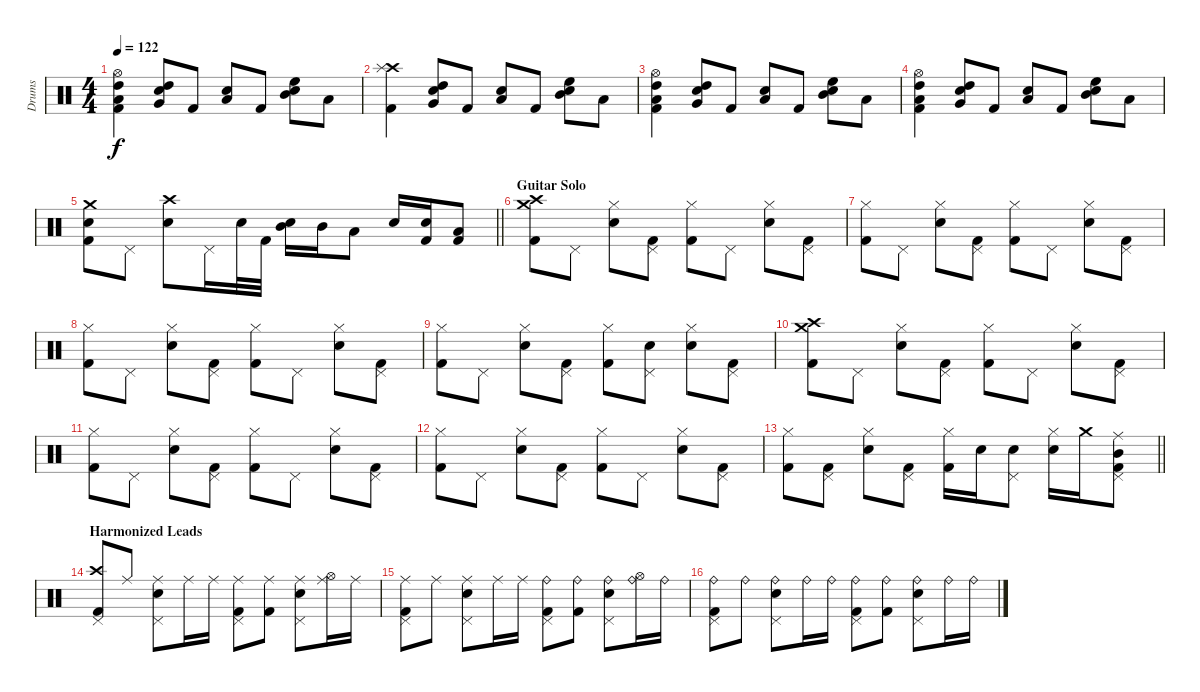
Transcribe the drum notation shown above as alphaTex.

\track ("Drums" "Drums") {instrument percussion}
\staff {score}
\articulation defaults
\ts (4 4)
\tempo 122
\clef neutral
\ks c
("Hi-Hat (open)" "High Tom (hit)" "Low Tom (hit)" "Kick (hit) 2").4{dy f} ("Snare (hit) 2" "Very Low Tom (hit)" "High Tom (hit)").8 "Kick (hit) 2".8 ("Snare (hit) 2" "Low Tom (hit)").8 "Kick (hit) 2".8 ("Snare (hit) 2" "Mid Tom (hit)" "High Floor Tom (hit)").8 "Low Floor Tom (hit)".8 |
("Crash high (hit)" "Splash (hit)" "Kick (hit) 2").4 ("Snare (hit) 2" "Very Low Tom (hit)" "High Tom (hit)").8 "Kick (hit) 2".8 ("Snare (hit) 2" "Low Tom (hit)").8 "Kick (hit) 2".8 ("Snare (hit) 2" "Mid Tom (hit)" "High Floor Tom (hit)").8 "Low Floor Tom (hit)".8 |
("Hi-Hat (open)" "High Tom (hit)" "Low Tom (hit)" "Kick (hit) 2").4 ("Snare (hit) 2" "Very Low Tom (hit)" "High Tom (hit)").8 "Kick (hit) 2".8 ("Snare (hit) 2" "Low Tom (hit)").8 "Kick (hit) 2".8 ("Snare (hit) 2" "Mid Tom (hit)" "High Floor Tom (hit)").8 "Low Floor Tom (hit)".8 |
("Hi-Hat (open)" "High Tom (hit)" "Low Tom (hit)" "Kick (hit) 2").4 ("Snare (hit) 2" "Very Low Tom (hit)" "High Tom (hit)").8 "Kick (hit) 2".8 ("Snare (hit) 2" "Low Tom (hit)").8 "Kick (hit) 2".8 ("Snare (hit) 2" "Mid Tom (hit)" "High Floor Tom (hit)").8 "Low Floor Tom (hit)".8 |
\barLineRight lightlight
("Crash medium (hit)" "Snare (hit) 2" "Kick (hit) 2").8 "Pedal Hi-Hat (hit)".8 ("Crash high (hit)" "Snare (hit) 2").8 "Pedal Hi-Hat (hit)".16 "Snare (hit) 2".32 "Kick (hit) 2".32 ("Snare (hit) 2" "Mid Tom (hit)").16 "Mid Tom (hit)".16 "Low Tom (hit)".8 "Snare (hit) 2".16 ("Snare (hit) 2" "Kick (hit) 2").16 ("Low Floor Tom (hit)" "Kick (hit) 2").8 |
\section ("" "Guitar Solo")
("Crash medium (hit)" "Crash high (hit)" "Kick (hit) 2").8 "Pedal Hi-Hat (hit)".8 ("Snare (hit) 2" "Hi-Hat (closed)").8 ("Pedal Hi-Hat (hit)" "Kick (hit) 2").8 ("Hi-Hat (closed)" "Kick (hit) 2").8 "Pedal Hi-Hat (hit)".8 ("Snare (hit) 2" "Hi-Hat (closed)").8 ("Pedal Hi-Hat (hit)" "Kick (hit) 2").8 |
("Hi-Hat (closed)" "Kick (hit) 2").8 "Pedal Hi-Hat (hit)".8 ("Snare (hit) 2" "Hi-Hat (closed)").8 ("Pedal Hi-Hat (hit)" "Kick (hit) 2").8 ("Hi-Hat (closed)" "Kick (hit) 2").8 "Pedal Hi-Hat (hit)".8 ("Snare (hit) 2" "Hi-Hat (closed)").8 ("Pedal Hi-Hat (hit)" "Kick (hit) 2").8 |
("Hi-Hat (closed)" "Kick (hit) 2").8 "Pedal Hi-Hat (hit)".8 ("Snare (hit) 2" "Hi-Hat (closed)").8 ("Pedal Hi-Hat (hit)" "Kick (hit) 2").8 ("Hi-Hat (closed)" "Kick (hit) 2").8 "Pedal Hi-Hat (hit)".8 ("Snare (hit) 2" "Hi-Hat (closed)").8 ("Pedal Hi-Hat (hit)" "Kick (hit) 2").8 |
("Hi-Hat (closed)" "Kick (hit) 2").8 "Pedal Hi-Hat (hit)".8 ("Snare (hit) 2" "Hi-Hat (closed)").8 ("Pedal Hi-Hat (hit)" "Kick (hit) 2").8 ("Hi-Hat (closed)" "Kick (hit) 2").8 ("Snare (hit) 2" "Pedal Hi-Hat (hit)").8 ("Snare (hit) 2" "Hi-Hat (closed)").8 ("Pedal Hi-Hat (hit)" "Kick (hit) 2").8 |
("Crash medium (hit)" "Crash high (hit)" "Kick (hit) 2").8 "Pedal Hi-Hat (hit)".8 ("Snare (hit) 2" "Hi-Hat (closed)").8 ("Pedal Hi-Hat (hit)" "Kick (hit) 2").8 ("Hi-Hat (closed)" "Kick (hit) 2").8 "Pedal Hi-Hat (hit)".8 ("Snare (hit) 2" "Hi-Hat (closed)").8 ("Pedal Hi-Hat (hit)" "Kick (hit) 2").8 |
("Hi-Hat (closed)" "Kick (hit) 2").8 "Pedal Hi-Hat (hit)".8 ("Snare (hit) 2" "Hi-Hat (closed)").8 ("Pedal Hi-Hat (hit)" "Kick (hit) 2").8 ("Hi-Hat (closed)" "Kick (hit) 2").8 "Pedal Hi-Hat (hit)".8 ("Snare (hit) 2" "Hi-Hat (closed)").8 ("Pedal Hi-Hat (hit)" "Kick (hit) 2").8 |
("Hi-Hat (closed)" "Kick (hit) 2").8 "Pedal Hi-Hat (hit)".8 ("Snare (hit) 2" "Hi-Hat (closed)").8 ("Pedal Hi-Hat (hit)" "Kick (hit) 2").8 ("Hi-Hat (closed)" "Kick (hit) 2").8 "Pedal Hi-Hat (hit)".8 ("Snare (hit) 2" "Hi-Hat (closed)").8 ("Pedal Hi-Hat (hit)" "Kick (hit) 2").8 |
\barLineRight lightlight
("Hi-Hat (closed)" "Kick (hit) 2").8 ("Pedal Hi-Hat (hit)" "Kick (hit) 2").8 ("Hi-Hat (closed)" "Snare (hit) 2").8 ("Pedal Hi-Hat (hit)" "Kick (hit) 2").8 ("Hi-Hat (closed)" "Kick (hit) 2").16 "Snare (hit) 2".16 ("Pedal Hi-Hat (hit)" "Snare (hit) 2").8 ("Hi-Hat (closed)" "Snare (hit) 2").16 "Crash medium (hit)".16 ("Ride (middle)" "Pedal Hi-Hat (hit)" "Mid Tom (hit)" "Kick (hit) 2").8 |
\section ("" "Harmonized Leads")
("Crash high (hit)" "Pedal Hi-Hat (hit)" "Kick (hit) 2").8 "Ride (middle)".8 ("Ride (middle)" "Snare (hit) 2" "Pedal Hi-Hat (hit)").8 "Ride (middle)".16 "Ride (middle)".16 ("Ride (middle)" "Pedal Hi-Hat (hit)" "Kick (hit) 2").8 ("Ride (middle)" "Kick (hit) 2").8 ("Ride (middle)" "Snare (hit) 2" "Pedal Hi-Hat (hit)").8 ("Ride (middle)" "Hi-Hat (open)").16 "Ride (middle)".16 |
("Ride (middle)" "Pedal Hi-Hat (hit)" "Kick (hit) 2").8 "Ride (middle)".8 ("Ride (middle)" "Snare (hit) 2" "Pedal Hi-Hat (hit)").8 "Ride (middle)".16 "Ride (middle)".16 ("Ride (bell)" "Pedal Hi-Hat (hit)" "Kick (hit) 2").8 ("Ride (bell)" "Kick (hit) 2").8 ("Ride (bell)" "Snare (hit) 2" "Pedal Hi-Hat (hit)").8 ("Ride (bell)" "Hi-Hat (open)").16 "Ride (bell)".16 |
("Ride (bell)" "Pedal Hi-Hat (hit)" "Kick (hit) 2").8 "Ride (bell)".8 ("Ride (bell)" "Snare (hit) 2" "Pedal Hi-Hat (hit)").8 "Ride (bell)".16 "Ride (bell)".16 ("Ride (bell)" "Pedal Hi-Hat (hit)" "Kick (hit) 2").8 ("Ride (bell)" "Kick (hit) 2").8 ("Ride (bell)" "Snare (hit) 2" "Pedal Hi-Hat (hit)").8 "Ride (bell)".16 "Ride (bell)".16
